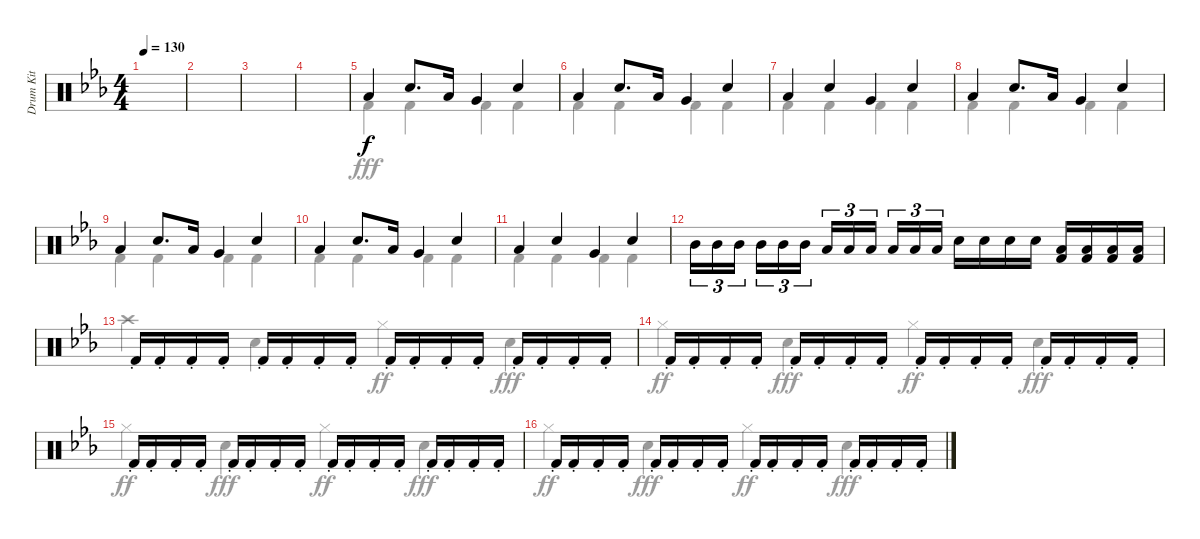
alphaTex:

\track ("Drum Kit" "Drum Kit") {instrument percussion}
\staff {score}
\articulation defaults
\voice
\ts (4 4)
\tempo 130
\clef neutral
\ks cminor
|
|
|
|
"Low Tom (hit)".4 "Electric Snare (hit)".8{d} "Low Tom (hit)".16 "Very Low Tom (hit)".4 "Electric Snare (hit)".4 |
"Low Tom (hit)".4 "Electric Snare (hit)".8{d} "Low Tom (hit)".16 "Very Low Tom (hit)".4 "Electric Snare (hit)".4 |
"Low Tom (hit)".4 "Electric Snare (hit)".4 "Very Low Tom (hit)".4 "Electric Snare (hit)".4 |
"Low Tom (hit)".4 "Electric Snare (hit)".8{d} "Low Tom (hit)".16 "Very Low Tom (hit)".4 "Electric Snare (hit)".4 |
"Low Tom (hit)".4 "Electric Snare (hit)".8{d} "Low Tom (hit)".16 "Very Low Tom (hit)".4 "Electric Snare (hit)".4 |
"Low Tom (hit)".4 "Electric Snare (hit)".8{d} "Low Tom (hit)".16 "Very Low Tom (hit)".4 "Electric Snare (hit)".4 |
"Low Tom (hit)".4 "Electric Snare (hit)".4 "Very Low Tom (hit)".4 "Electric Snare (hit)".4 |
"Mid Tom (hit)".16{tu (3 2)} "Mid Tom (hit)".16{tu (3 2)} "Mid Tom (hit)".16{tu (3 2) beam splitsecondary} "Mid Tom (hit)".16{tu (3 2)} "Mid Tom (hit)".16{tu (3 2)} "Mid Tom (hit)".16{tu (3 2)} "Low Tom (hit)".16{tu (3 2)} "Low Tom (hit)".16{tu (3 2)} "Low Tom (hit)".16{tu (3 2) beam splitsecondary} "Low Tom (hit)".16{tu (3 2)} "Low Tom (hit)".16{tu (3 2)} "Low Tom (hit)".16{tu (3 2)} "Electric Snare (hit)".16 "Electric Snare (hit)".16 "Electric Snare (hit)".16 "Electric Snare (hit)".16 ("Low Floor Tom (hit)" "Kick (hit) 2").16 ("Low Floor Tom (hit)" "Kick (hit) 2").16 ("Low Floor Tom (hit)" "Kick (hit) 2").16 ("Low Floor Tom (hit)" "Kick (hit) 2").16 |
"Kick (hit) 2"{st}.16 "Kick (hit) 2"{st}.16 "Kick (hit) 2"{st}.16 "Kick (hit) 2"{st}.16 "Kick (hit) 2"{st}.16 "Kick (hit) 2"{st}.16 "Kick (hit) 2"{st}.16 "Kick (hit) 2"{st}.16 "Kick (hit) 2"{st}.16 "Kick (hit) 2"{st}.16 "Kick (hit) 2"{st}.16 "Kick (hit) 2"{st}.16 "Kick (hit) 2"{st}.16 "Kick (hit) 2"{st}.16 "Kick (hit) 2"{st}.16 "Kick (hit) 2"{st}.16 |
"Kick (hit) 2"{st}.16 "Kick (hit) 2"{st}.16 "Kick (hit) 2"{st}.16 "Kick (hit) 2"{st}.16 "Kick (hit) 2"{st}.16 "Kick (hit) 2"{st}.16 "Kick (hit) 2"{st}.16 "Kick (hit) 2"{st}.16 "Kick (hit) 2"{st}.16 "Kick (hit) 2"{st}.16 "Kick (hit) 2"{st}.16 "Kick (hit) 2"{st}.16 "Kick (hit) 2"{st}.16 "Kick (hit) 2"{st}.16 "Kick (hit) 2"{st}.16 "Kick (hit) 2"{st}.16 |
"Kick (hit) 2"{st}.16 "Kick (hit) 2"{st}.16 "Kick (hit) 2"{st}.16 "Kick (hit) 2"{st}.16 "Kick (hit) 2"{st}.16 "Kick (hit) 2"{st}.16 "Kick (hit) 2"{st}.16 "Kick (hit) 2"{st}.16 "Kick (hit) 2"{st}.16 "Kick (hit) 2"{st}.16 "Kick (hit) 2"{st}.16 "Kick (hit) 2"{st}.16 "Kick (hit) 2"{st}.16 "Kick (hit) 2"{st}.16 "Kick (hit) 2"{st}.16 "Kick (hit) 2"{st}.16 |
"Kick (hit) 2"{st}.16 "Kick (hit) 2"{st}.16 "Kick (hit) 2"{st}.16 "Kick (hit) 2"{st}.16 "Kick (hit) 2"{st}.16 "Kick (hit) 2"{st}.16 "Kick (hit) 2"{st}.16 "Kick (hit) 2"{st}.16 "Kick (hit) 2"{st}.16 "Kick (hit) 2"{st}.16 "Kick (hit) 2"{st}.16 "Kick (hit) 2"{st}.16 "Kick (hit) 2"{st}.16 "Kick (hit) 2"{st}.16 "Kick (hit) 2"{st}.16 "Kick (hit) 2"{st}.16
\voice
\clef neutral
\ottava regular
\simile none
\ks cminor
|
|
|
|
"Kick (hit) 2".4{dy fff} "Kick (hit) 2".4 "Kick (hit) 2".4 "Kick (hit) 2".4 |
"Kick (hit) 2".4 "Kick (hit) 2".4 "Kick (hit) 2".4 "Kick (hit) 2".4 |
"Kick (hit) 2".4 "Kick (hit) 2".4 "Kick (hit) 2".4 "Kick (hit) 2".4 |
"Kick (hit) 2".4 "Kick (hit) 2".4 "Kick (hit) 2".4 "Kick (hit) 2".4 |
"Kick (hit) 2".4 "Kick (hit) 2".4 "Kick (hit) 2".4 "Kick (hit) 2".4 |
"Kick (hit) 2".4 "Kick (hit) 2".4 "Kick (hit) 2".4 "Kick (hit) 2".4 |
"Kick (hit) 2".4 "Kick (hit) 2".4 "Kick (hit) 2".4 "Kick (hit) 2".4 |
|
"Crash high (hit)".4 "Electric Snare (hit)".4 "Hi-Hat (closed)".4{dy ff} "Electric Snare (hit)".4{dy fff} |
"Hi-Hat (closed)".4{dy ff} "Electric Snare (hit)".4{dy fff} "Hi-Hat (closed)".4{dy ff} "Electric Snare (hit)".4{dy fff} |
"Hi-Hat (closed)".4{dy ff} "Electric Snare (hit)".4{dy fff} "Hi-Hat (closed)".4{dy ff} "Electric Snare (hit)".4{dy fff} |
"Hi-Hat (closed)".4{dy ff} "Electric Snare (hit)".4{dy fff} "Hi-Hat (closed)".4{dy ff} "Electric Snare (hit)".4{dy fff}
